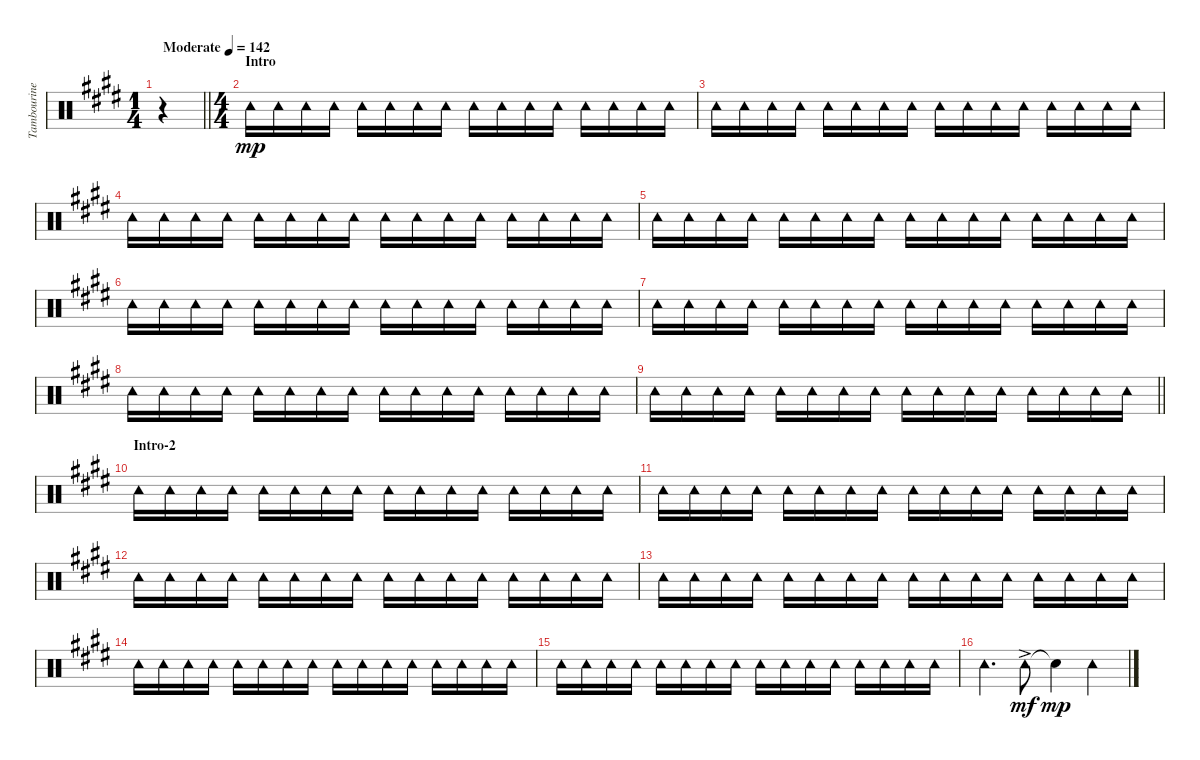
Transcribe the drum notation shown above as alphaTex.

\track ("Tambourine" "Tambourine") {instrument percussion}
\staff {score}
\articulation defaults
\ts (1 4)
\tempo (142 "Moderate")
\clef neutral
\barLineRight lightlight
\ks e
r.4{dy mp} |
\ts (4 4)
\section ("" "Intro")
"Tambourine (hit)".16 "Tambourine (hit)".16 "Tambourine (hit)".16 "Tambourine (hit)".16 "Tambourine (hit)".16 "Tambourine (hit)".16 "Tambourine (hit)".16 "Tambourine (hit)".16 "Tambourine (hit)".16 "Tambourine (hit)".16 "Tambourine (hit)".16 "Tambourine (hit)".16 "Tambourine (hit)".16 "Tambourine (hit)".16 "Tambourine (hit)".16 "Tambourine (hit)".16 |
"Tambourine (hit)".16 "Tambourine (hit)".16 "Tambourine (hit)".16 "Tambourine (hit)".16 "Tambourine (hit)".16 "Tambourine (hit)".16 "Tambourine (hit)".16 "Tambourine (hit)".16 "Tambourine (hit)".16 "Tambourine (hit)".16 "Tambourine (hit)".16 "Tambourine (hit)".16 "Tambourine (hit)".16 "Tambourine (hit)".16 "Tambourine (hit)".16 "Tambourine (hit)".16 |
"Tambourine (hit)".16 "Tambourine (hit)".16 "Tambourine (hit)".16 "Tambourine (hit)".16 "Tambourine (hit)".16 "Tambourine (hit)".16 "Tambourine (hit)".16 "Tambourine (hit)".16 "Tambourine (hit)".16 "Tambourine (hit)".16 "Tambourine (hit)".16 "Tambourine (hit)".16 "Tambourine (hit)".16 "Tambourine (hit)".16 "Tambourine (hit)".16 "Tambourine (hit)".16 |
"Tambourine (hit)".16 "Tambourine (hit)".16 "Tambourine (hit)".16 "Tambourine (hit)".16 "Tambourine (hit)".16 "Tambourine (hit)".16 "Tambourine (hit)".16 "Tambourine (hit)".16 "Tambourine (hit)".16 "Tambourine (hit)".16 "Tambourine (hit)".16 "Tambourine (hit)".16 "Tambourine (hit)".16 "Tambourine (hit)".16 "Tambourine (hit)".16 "Tambourine (hit)".16 |
"Tambourine (hit)".16 "Tambourine (hit)".16 "Tambourine (hit)".16 "Tambourine (hit)".16 "Tambourine (hit)".16 "Tambourine (hit)".16 "Tambourine (hit)".16 "Tambourine (hit)".16 "Tambourine (hit)".16 "Tambourine (hit)".16 "Tambourine (hit)".16 "Tambourine (hit)".16 "Tambourine (hit)".16 "Tambourine (hit)".16 "Tambourine (hit)".16 "Tambourine (hit)".16 |
"Tambourine (hit)".16 "Tambourine (hit)".16 "Tambourine (hit)".16 "Tambourine (hit)".16 "Tambourine (hit)".16 "Tambourine (hit)".16 "Tambourine (hit)".16 "Tambourine (hit)".16 "Tambourine (hit)".16 "Tambourine (hit)".16 "Tambourine (hit)".16 "Tambourine (hit)".16 "Tambourine (hit)".16 "Tambourine (hit)".16 "Tambourine (hit)".16 "Tambourine (hit)".16 |
"Tambourine (hit)".16 "Tambourine (hit)".16 "Tambourine (hit)".16 "Tambourine (hit)".16 "Tambourine (hit)".16 "Tambourine (hit)".16 "Tambourine (hit)".16 "Tambourine (hit)".16 "Tambourine (hit)".16 "Tambourine (hit)".16 "Tambourine (hit)".16 "Tambourine (hit)".16 "Tambourine (hit)".16 "Tambourine (hit)".16 "Tambourine (hit)".16 "Tambourine (hit)".16 |
\barLineRight lightlight "Tambourine (hit)".16 "Tambourine (hit)".16 "Tambourine (hit)".16 "Tambourine (hit)".16 "Tambourine (hit)".16 "Tambourine (hit)".16 "Tambourine (hit)".16 "Tambourine (hit)".16 "Tambourine (hit)".16 "Tambourine (hit)".16 "Tambourine (hit)".16 "Tambourine (hit)".16 "Tambourine (hit)".16 "Tambourine (hit)".16 "Tambourine (hit)".16 "Tambourine (hit)".16
|
\section ("" "Intro-2")
"Tambourine (hit)".16 "Tambourine (hit)".16 "Tambourine (hit)".16 "Tambourine (hit)".16 "Tambourine (hit)".16 "Tambourine (hit)".16 "Tambourine (hit)".16 "Tambourine (hit)".16 "Tambourine (hit)".16 "Tambourine (hit)".16 "Tambourine (hit)".16 "Tambourine (hit)".16 "Tambourine (hit)".16 "Tambourine (hit)".16 "Tambourine (hit)".16 "Tambourine (hit)".16 |
"Tambourine (hit)".16 "Tambourine (hit)".16 "Tambourine (hit)".16 "Tambourine (hit)".16 "Tambourine (hit)".16 "Tambourine (hit)".16 "Tambourine (hit)".16 "Tambourine (hit)".16 "Tambourine (hit)".16 "Tambourine (hit)".16 "Tambourine (hit)".16 "Tambourine (hit)".16 "Tambourine (hit)".16 "Tambourine (hit)".16 "Tambourine (hit)".16 "Tambourine (hit)".16 |
"Tambourine (hit)".16 "Tambourine (hit)".16 "Tambourine (hit)".16 "Tambourine (hit)".16 "Tambourine (hit)".16 "Tambourine (hit)".16 "Tambourine (hit)".16 "Tambourine (hit)".16 "Tambourine (hit)".16 "Tambourine (hit)".16 "Tambourine (hit)".16 "Tambourine (hit)".16 "Tambourine (hit)".16 "Tambourine (hit)".16 "Tambourine (hit)".16 "Tambourine (hit)".16 |
"Tambourine (hit)".16 "Tambourine (hit)".16 "Tambourine (hit)".16 "Tambourine (hit)".16 "Tambourine (hit)".16 "Tambourine (hit)".16 "Tambourine (hit)".16 "Tambourine (hit)".16 "Tambourine (hit)".16 "Tambourine (hit)".16 "Tambourine (hit)".16 "Tambourine (hit)".16 "Tambourine (hit)".16 "Tambourine (hit)".16 "Tambourine (hit)".16 "Tambourine (hit)".16 |
"Tambourine (hit)".16 "Tambourine (hit)".16 "Tambourine (hit)".16 "Tambourine (hit)".16 "Tambourine (hit)".16 "Tambourine (hit)".16 "Tambourine (hit)".16 "Tambourine (hit)".16 "Tambourine (hit)".16 "Tambourine (hit)".16 "Tambourine (hit)".16 "Tambourine (hit)".16 "Tambourine (hit)".16 "Tambourine (hit)".16 "Tambourine (hit)".16 "Tambourine (hit)".16 |
"Tambourine (hit)".16 "Tambourine (hit)".16 "Tambourine (hit)".16 "Tambourine (hit)".16 "Tambourine (hit)".16 "Tambourine (hit)".16 "Tambourine (hit)".16 "Tambourine (hit)".16 "Tambourine (hit)".16 "Tambourine (hit)".16 "Tambourine (hit)".16 "Tambourine (hit)".16 "Tambourine (hit)".16 "Tambourine (hit)".16 "Tambourine (hit)".16 "Tambourine (hit)".16 |
"Tambourine (hit)".4{d} "Tambourine (hit)"{ac}.8{dy mf} "Snare (hit)"{t}.4{dy mp} "Tambourine (hit)".4
